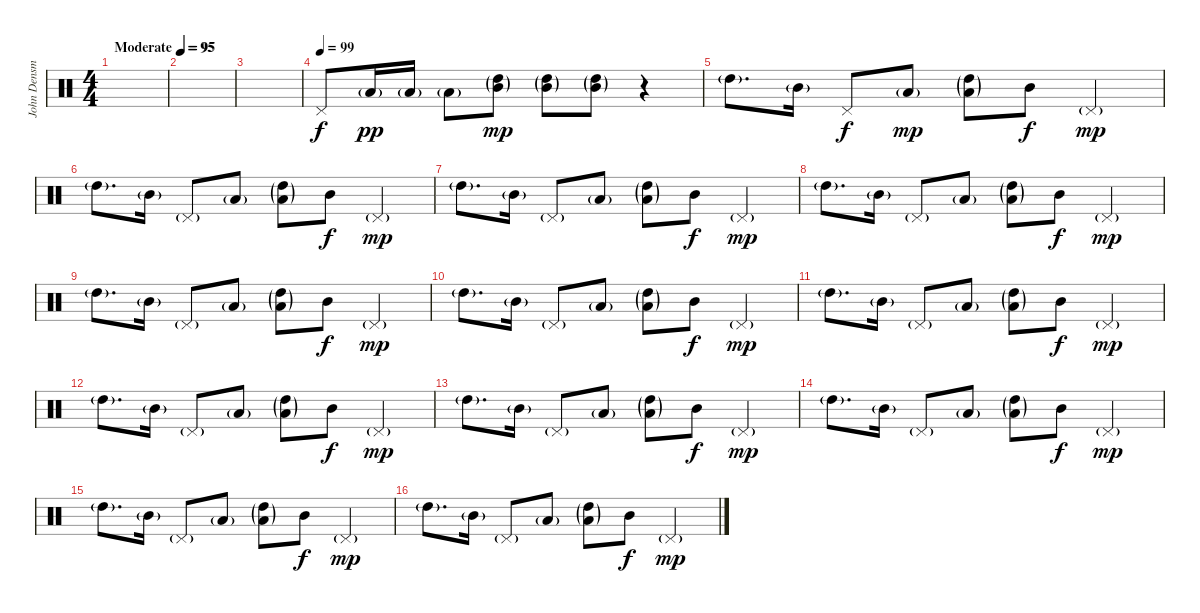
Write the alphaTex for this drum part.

\track ("John Densmore - Drums" "John Densm") {instrument percussion}
\staff {score}
\articulation defaults
\ts (4 4)
\tempo (95 "Moderate")
\tempo 85
\tempo (95 "Moderate")
\clef neutral
\ks c
|
\tempo 95
|
|
\tempo (99)
"Pedal Hi-Hat (hit)".8 "Low Tom (hit)"{g}.16{dy pp} "Low Tom (hit)"{g}.16 "Low Tom (hit)"{g}.8 ("Mid Tom (hit)"{g} "High Tom (hit)"{g}).8{dy mp} ("Mid Tom (hit)"{g} "High Tom (hit)"{g}).8 ("Mid Tom (hit)"{g} "High Tom (hit)"{g}).8 r.4 |
"High Tom (hit)"{g}.8{d} "Mid Tom (hit)"{g}.16 "Pedal Hi-Hat (hit)".8{dy f} "Low Tom (hit)"{g}.8{dy mp} ("Low Tom (hit)"{g} "High Tom (hit)"{g}).8 "Mid Tom (hit)".8{dy f} "Pedal Hi-Hat (hit)"{g}.4{dy mp} |
"High Tom (hit)"{g}.8{d} "Mid Tom (hit)"{g}.16 "Pedal Hi-Hat (hit)"{g}.8 "Low Tom (hit)"{g}.8 ("Low Tom (hit)"{g} "High Tom (hit)"{g}).8 "Mid Tom (hit)".8{dy f} "Pedal Hi-Hat (hit)"{g}.4{dy mp} |
"High Tom (hit)"{g}.8{d} "Mid Tom (hit)"{g}.16 "Pedal Hi-Hat (hit)"{g}.8 "Low Tom (hit)"{g}.8 ("Low Tom (hit)"{g} "High Tom (hit)"{g}).8 "Mid Tom (hit)".8{dy f} "Pedal Hi-Hat (hit)"{g}.4{dy mp} |
"High Tom (hit)"{g}.8{d} "Mid Tom (hit)"{g}.16 "Pedal Hi-Hat (hit)"{g}.8 "Low Tom (hit)"{g}.8 ("Low Tom (hit)"{g} "High Tom (hit)"{g}).8 "Mid Tom (hit)".8{dy f} "Pedal Hi-Hat (hit)"{g}.4{dy mp} |
"High Tom (hit)"{g}.8{d} "Mid Tom (hit)"{g}.16 "Pedal Hi-Hat (hit)"{g}.8 "Low Tom (hit)"{g}.8 ("Low Tom (hit)"{g} "High Tom (hit)"{g}).8 "Mid Tom (hit)".8{dy f} "Pedal Hi-Hat (hit)"{g}.4{dy mp} |
"High Tom (hit)"{g}.8{d} "Mid Tom (hit)"{g}.16 "Pedal Hi-Hat (hit)"{g}.8 "Low Tom (hit)"{g}.8 ("Low Tom (hit)"{g} "High Tom (hit)"{g}).8 "Mid Tom (hit)".8{dy f} "Pedal Hi-Hat (hit)"{g}.4{dy mp} |
"High Tom (hit)"{g}.8{d} "Mid Tom (hit)"{g}.16 "Pedal Hi-Hat (hit)"{g}.8 "Low Tom (hit)"{g}.8 ("Low Tom (hit)"{g} "High Tom (hit)"{g}).8 "Mid Tom (hit)".8{dy f} "Pedal Hi-Hat (hit)"{g}.4{dy mp} |
"High Tom (hit)"{g}.8{d} "Mid Tom (hit)"{g}.16 "Pedal Hi-Hat (hit)"{g}.8 "Low Tom (hit)"{g}.8 ("Low Tom (hit)"{g} "High Tom (hit)"{g}).8 "Mid Tom (hit)".8{dy f} "Pedal Hi-Hat (hit)"{g}.4{dy mp} |
"High Tom (hit)"{g}.8{d} "Mid Tom (hit)"{g}.16 "Pedal Hi-Hat (hit)"{g}.8 "Low Tom (hit)"{g}.8 ("Low Tom (hit)"{g} "High Tom (hit)"{g}).8 "Mid Tom (hit)".8{dy f} "Pedal Hi-Hat (hit)"{g}.4{dy mp} |
"High Tom (hit)"{g}.8{d} "Mid Tom (hit)"{g}.16 "Pedal Hi-Hat (hit)"{g}.8 "Low Tom (hit)"{g}.8 ("Low Tom (hit)"{g} "High Tom (hit)"{g}).8 "Mid Tom (hit)".8{dy f} "Pedal Hi-Hat (hit)"{g}.4{dy mp} |
"High Tom (hit)"{g}.8{d} "Mid Tom (hit)"{g}.16 "Pedal Hi-Hat (hit)"{g}.8 "Low Tom (hit)"{g}.8 ("Low Tom (hit)"{g} "High Tom (hit)"{g}).8 "Mid Tom (hit)".8{dy f} "Pedal Hi-Hat (hit)"{g}.4{dy mp} |
"High Tom (hit)"{g}.8{d} "Mid Tom (hit)"{g}.16 "Pedal Hi-Hat (hit)"{g}.8 "Low Tom (hit)"{g}.8 ("Low Tom (hit)"{g} "High Tom (hit)"{g}).8 "Mid Tom (hit)".8{dy f} "Pedal Hi-Hat (hit)"{g}.4{dy mp}
